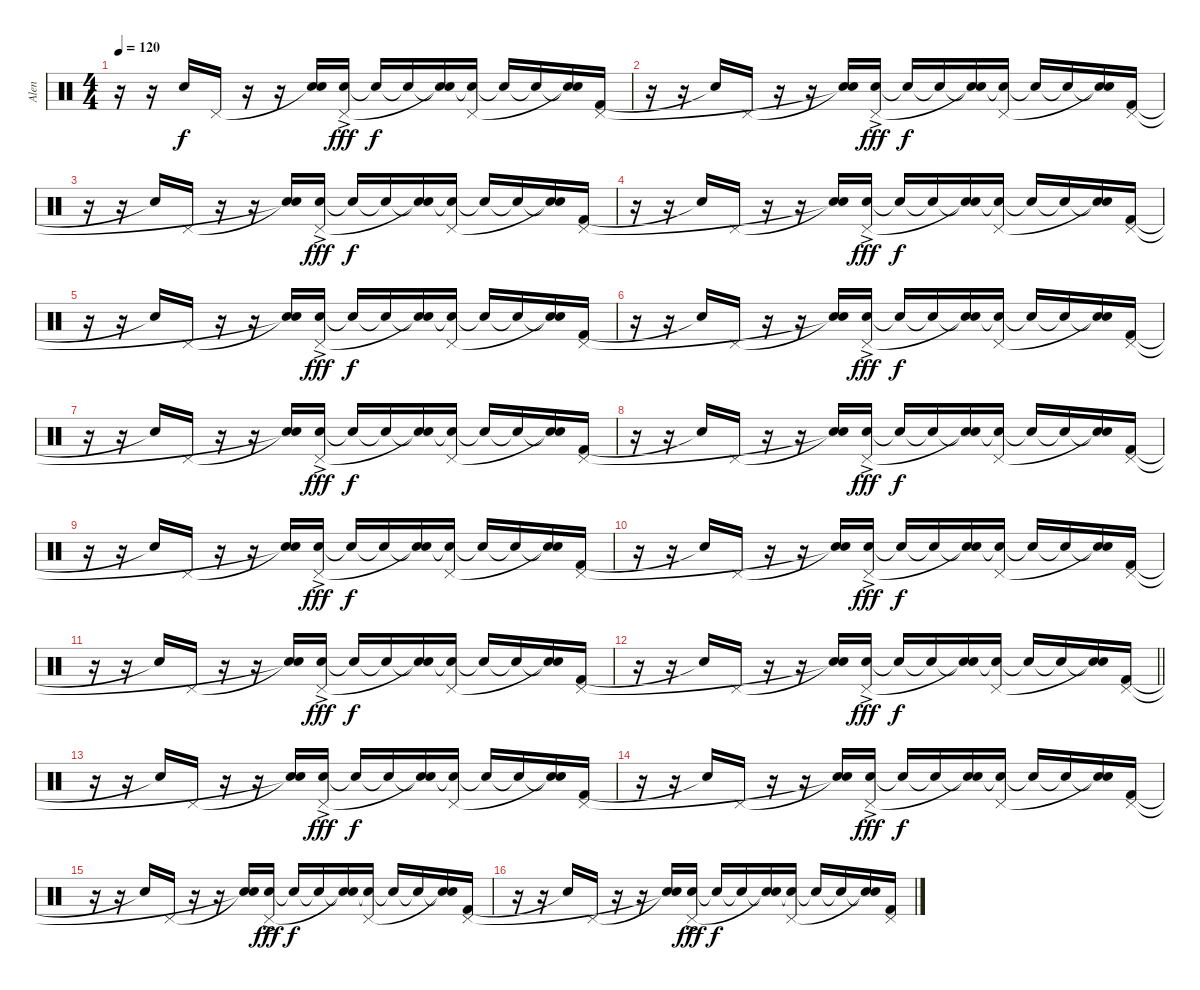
\track ("Alen" "Alen") {instrument percussion}
\staff {score}
\articulation defaults
\ts (4 4)
\tempo 120
\clef neutral
\ks c
r.16{dy f} r.16 "Snare (hit)"{t}.16 "Pedal Hi-Hat (hit)".16 r.16 r.16 ("Snare (hit)"{t} "Snare (hit)"{t}).16 ("Snare (hit) 2"{ac} "Pedal Hi-Hat (hit)").16{dy fff} "Snare (hit)"{t}.16{dy f} "Snare (hit)"{t}.16 ("Snare (hit)"{t} "Snare (hit)"{t}).16 ("Snare (hit)"{t} "Pedal Hi-Hat (hit)").16 "Snare (hit)"{t}.16 "Snare (hit)"{t}.16 ("Snare (hit)"{t} "Snare (hit)"{t}).16 ("Kick (hit) 2" "Pedal Hi-Hat (hit)").16 |
r.16 r.16 "Snare (hit)"{t}.16 "Pedal Hi-Hat (hit)".16 r.16 r.16 ("Snare (hit)"{t} "Snare (hit)"{t}).16 ("Snare (hit) 2"{ac} "Pedal Hi-Hat (hit)").16{dy fff} "Snare (hit)"{t}.16{dy f} "Snare (hit)"{t}.16 ("Snare (hit)"{t} "Snare (hit)"{t}).16 ("Snare (hit)"{t} "Pedal Hi-Hat (hit)").16 "Snare (hit)"{t}.16 "Snare (hit)"{t}.16 ("Snare (hit)"{t} "Snare (hit)"{t}).16 ("Kick (hit) 2" "Pedal Hi-Hat (hit)").16 |
r.16 r.16 "Snare (hit)"{t}.16 "Pedal Hi-Hat (hit)".16 r.16 r.16 ("Snare (hit)"{t} "Snare (hit)"{t}).16 ("Snare (hit) 2"{ac} "Pedal Hi-Hat (hit)").16{dy fff} "Snare (hit)"{t}.16{dy f} "Snare (hit)"{t}.16 ("Snare (hit)"{t} "Snare (hit)"{t}).16 ("Snare (hit)"{t} "Pedal Hi-Hat (hit)").16 "Snare (hit)"{t}.16 "Snare (hit)"{t}.16 ("Snare (hit)"{t} "Snare (hit)"{t}).16 ("Kick (hit) 2" "Pedal Hi-Hat (hit)").16 |
r.16 r.16 "Snare (hit)"{t}.16 "Pedal Hi-Hat (hit)".16 r.16 r.16 ("Snare (hit)"{t} "Snare (hit)"{t}).16 ("Snare (hit) 2"{ac} "Pedal Hi-Hat (hit)").16{dy fff} "Snare (hit)"{t}.16{dy f} "Snare (hit)"{t}.16 ("Snare (hit)"{t} "Snare (hit)"{t}).16 ("Snare (hit)"{t} "Pedal Hi-Hat (hit)").16 "Snare (hit)"{t}.16 "Snare (hit)"{t}.16 ("Snare (hit)"{t} "Snare (hit)"{t}).16 ("Kick (hit) 2" "Pedal Hi-Hat (hit)").16 |
r.16 r.16 "Snare (hit)"{t}.16 "Pedal Hi-Hat (hit)".16 r.16 r.16 ("Snare (hit)"{t} "Snare (hit)"{t}).16 ("Snare (hit) 2"{ac} "Pedal Hi-Hat (hit)").16{dy fff} "Snare (hit)"{t}.16{dy f} "Snare (hit)"{t}.16 ("Snare (hit)"{t} "Snare (hit)"{t}).16 ("Snare (hit)"{t} "Pedal Hi-Hat (hit)").16 "Snare (hit)"{t}.16 "Snare (hit)"{t}.16 ("Snare (hit)"{t} "Snare (hit)"{t}).16 ("Kick (hit) 2" "Pedal Hi-Hat (hit)").16 |
r.16 r.16 "Snare (hit)"{t}.16 "Pedal Hi-Hat (hit)".16 r.16 r.16 ("Snare (hit)"{t} "Snare (hit)"{t}).16 ("Snare (hit) 2"{ac} "Pedal Hi-Hat (hit)").16{dy fff} "Snare (hit)"{t}.16{dy f} "Snare (hit)"{t}.16 ("Snare (hit)"{t} "Snare (hit)"{t}).16 ("Snare (hit)"{t} "Pedal Hi-Hat (hit)").16 "Snare (hit)"{t}.16 "Snare (hit)"{t}.16 ("Snare (hit)"{t} "Snare (hit)"{t}).16 ("Kick (hit) 2" "Pedal Hi-Hat (hit)").16 |
r.16 r.16 "Snare (hit)"{t}.16 "Pedal Hi-Hat (hit)".16 r.16 r.16 ("Snare (hit)"{t} "Snare (hit)"{t}).16 ("Snare (hit) 2"{ac} "Pedal Hi-Hat (hit)").16{dy fff} "Snare (hit)"{t}.16{dy f} "Snare (hit)"{t}.16 ("Snare (hit)"{t} "Snare (hit)"{t}).16 ("Snare (hit)"{t} "Pedal Hi-Hat (hit)").16 "Snare (hit)"{t}.16 "Snare (hit)"{t}.16 ("Snare (hit)"{t} "Snare (hit)"{t}).16 ("Kick (hit) 2" "Pedal Hi-Hat (hit)").16 |
r.16 r.16 "Snare (hit)"{t}.16 "Pedal Hi-Hat (hit)".16 r.16 r.16 ("Snare (hit)"{t} "Snare (hit)"{t}).16 ("Snare (hit) 2"{ac} "Pedal Hi-Hat (hit)").16{dy fff} "Snare (hit)"{t}.16{dy f} "Snare (hit)"{t}.16 ("Snare (hit)"{t} "Snare (hit)"{t}).16 ("Snare (hit)"{t} "Pedal Hi-Hat (hit)").16 "Snare (hit)"{t}.16 "Snare (hit)"{t}.16 ("Snare (hit)"{t} "Snare (hit)"{t}).16 ("Kick (hit) 2" "Pedal Hi-Hat (hit)").16 |
r.16 r.16 "Snare (hit)"{t}.16 "Pedal Hi-Hat (hit)".16 r.16 r.16 ("Snare (hit)"{t} "Snare (hit)"{t}).16 ("Snare (hit) 2"{ac} "Pedal Hi-Hat (hit)").16{dy fff} "Snare (hit)"{t}.16{dy f} "Snare (hit)"{t}.16 ("Snare (hit)"{t} "Snare (hit)"{t}).16 ("Snare (hit)"{t} "Pedal Hi-Hat (hit)").16 "Snare (hit)"{t}.16 "Snare (hit)"{t}.16 ("Snare (hit)"{t} "Snare (hit)"{t}).16 ("Kick (hit) 2" "Pedal Hi-Hat (hit)").16 |
r.16 r.16 "Snare (hit)"{t}.16 "Pedal Hi-Hat (hit)".16 r.16 r.16 ("Snare (hit)"{t} "Snare (hit)"{t}).16 ("Snare (hit) 2"{ac} "Pedal Hi-Hat (hit)").16{dy fff} "Snare (hit)"{t}.16{dy f} "Snare (hit)"{t}.16 ("Snare (hit)"{t} "Snare (hit)"{t}).16 ("Snare (hit)"{t} "Pedal Hi-Hat (hit)").16 "Snare (hit)"{t}.16 "Snare (hit)"{t}.16 ("Snare (hit)"{t} "Snare (hit)"{t}).16 ("Kick (hit) 2" "Pedal Hi-Hat (hit)").16 |
r.16 r.16 "Snare (hit)"{t}.16 "Pedal Hi-Hat (hit)".16 r.16 r.16 ("Snare (hit)"{t} "Snare (hit)"{t}).16 ("Snare (hit) 2"{ac} "Pedal Hi-Hat (hit)").16{dy fff} "Snare (hit)"{t}.16{dy f} "Snare (hit)"{t}.16 ("Snare (hit)"{t} "Snare (hit)"{t}).16 ("Snare (hit)"{t} "Pedal Hi-Hat (hit)").16 "Snare (hit)"{t}.16 "Snare (hit)"{t}.16 ("Snare (hit)"{t} "Snare (hit)"{t}).16 ("Kick (hit) 2" "Pedal Hi-Hat (hit)").16 |
\barLineRight lightlight
r.16 r.16 "Snare (hit)"{t}.16 "Pedal Hi-Hat (hit)".16 r.16 r.16 ("Snare (hit)"{t} "Snare (hit)"{t}).16 ("Snare (hit) 2"{ac} "Pedal Hi-Hat (hit)").16{dy fff} "Snare (hit)"{t}.16{dy f} "Snare (hit)"{t}.16 ("Snare (hit)"{t} "Snare (hit)"{t}).16 ("Snare (hit)"{t} "Pedal Hi-Hat (hit)").16 "Snare (hit)"{t}.16 "Snare (hit)"{t}.16 ("Snare (hit)"{t} "Snare (hit)"{t}).16 ("Kick (hit) 2" "Pedal Hi-Hat (hit)").16 |
r.16 r.16 "Snare (hit)"{t}.16 "Pedal Hi-Hat (hit)".16 r.16 r.16 ("Snare (hit)"{t} "Snare (hit)"{t}).16 ("Snare (hit) 2"{ac} "Pedal Hi-Hat (hit)").16{dy fff} "Snare (hit)"{t}.16{dy f} "Snare (hit)"{t}.16 ("Snare (hit)"{t} "Snare (hit)"{t}).16 ("Snare (hit)"{t} "Pedal Hi-Hat (hit)").16 "Snare (hit)"{t}.16 "Snare (hit)"{t}.16 ("Snare (hit)"{t} "Snare (hit)"{t}).16 ("Kick (hit) 2" "Pedal Hi-Hat (hit)").16 |
r.16 r.16 "Snare (hit)"{t}.16 "Pedal Hi-Hat (hit)".16 r.16 r.16 ("Snare (hit)"{t} "Snare (hit)"{t}).16 ("Snare (hit) 2"{ac} "Pedal Hi-Hat (hit)").16{dy fff} "Snare (hit)"{t}.16{dy f} "Snare (hit)"{t}.16 ("Snare (hit)"{t} "Snare (hit)"{t}).16 ("Snare (hit)"{t} "Pedal Hi-Hat (hit)").16 "Snare (hit)"{t}.16 "Snare (hit)"{t}.16 ("Snare (hit)"{t} "Snare (hit)"{t}).16 ("Kick (hit) 2" "Pedal Hi-Hat (hit)").16 |
r.16 r.16 "Snare (hit)"{t}.16 "Pedal Hi-Hat (hit)".16 r.16 r.16 ("Snare (hit)"{t} "Snare (hit)"{t}).16 ("Snare (hit) 2"{ac} "Pedal Hi-Hat (hit)").16{dy fff} "Snare (hit)"{t}.16{dy f} "Snare (hit)"{t}.16 ("Snare (hit)"{t} "Snare (hit)"{t}).16 ("Snare (hit)"{t} "Pedal Hi-Hat (hit)").16 "Snare (hit)"{t}.16 "Snare (hit)"{t}.16 ("Snare (hit)"{t} "Snare (hit)"{t}).16 ("Kick (hit) 2" "Pedal Hi-Hat (hit)").16 |
r.16 r.16 "Snare (hit)"{t}.16 "Pedal Hi-Hat (hit)".16 r.16 r.16 ("Snare (hit)"{t} "Snare (hit)"{t}).16 ("Snare (hit) 2"{ac} "Pedal Hi-Hat (hit)").16{dy fff} "Snare (hit)"{t}.16{dy f} "Snare (hit)"{t}.16 ("Snare (hit)"{t} "Snare (hit)"{t}).16 ("Snare (hit)"{t} "Pedal Hi-Hat (hit)").16 "Snare (hit)"{t}.16 "Snare (hit)"{t}.16 ("Snare (hit)"{t} "Snare (hit)"{t}).16 ("Kick (hit) 2" "Pedal Hi-Hat (hit)").16
